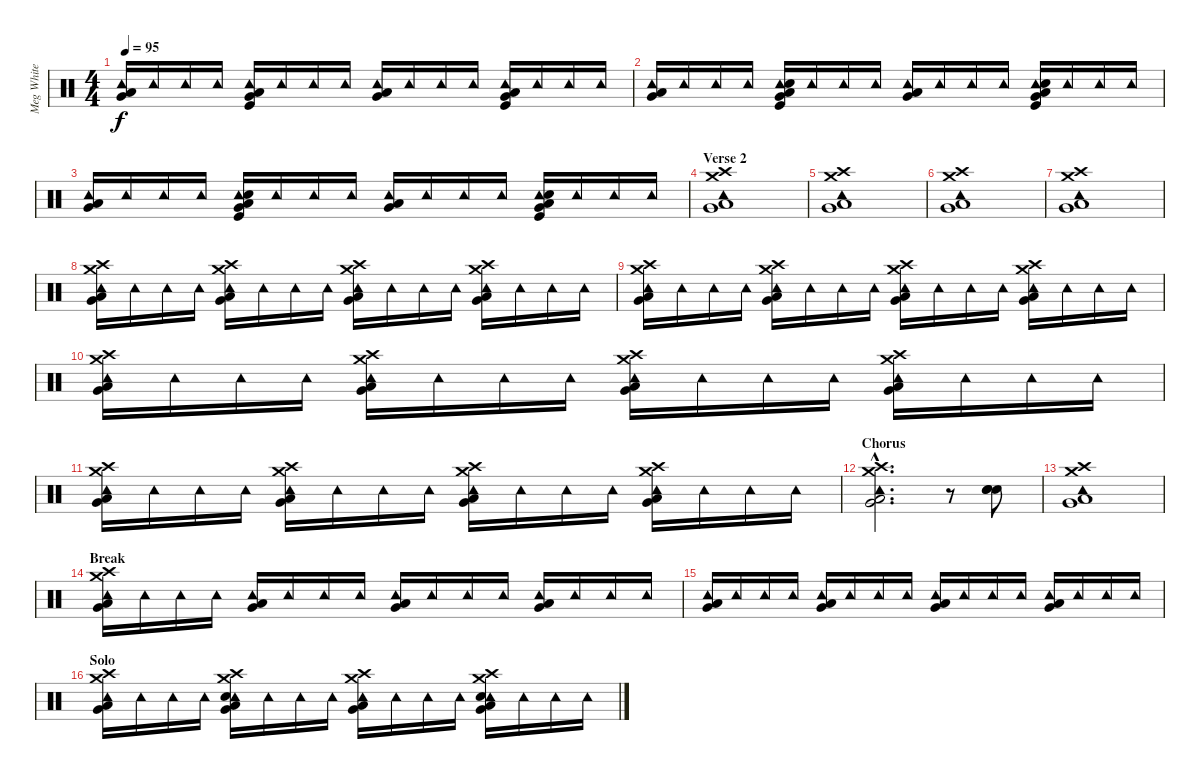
\track ("Meg White" "Meg White") {instrument percussion}
\staff {score}
\articulation defaults
\ts (4 4)
\tempo 95
\clef neutral
\ks c
("Very Low Tom (hit)" "Low Floor Tom (hit)" "Tambourine (hit)").16{dy f} "Tambourine (hit)".16 "Tambourine (hit)".16 "Tambourine (hit)".16 ("Very Low Tom (hit)" "Low Floor Tom (hit)" "Tambourine (hit)" "Kick (hit)").16 "Tambourine (hit)".16 "Tambourine (hit)".16 "Tambourine (hit)".16 ("Very Low Tom (hit)" "Low Floor Tom (hit)" "Tambourine (hit)").16 "Tambourine (hit)".16 "Tambourine (hit)".16 "Tambourine (hit)".16 ("Very Low Tom (hit)" "Low Floor Tom (hit)" "Tambourine (hit)" "Kick (hit)").16 "Tambourine (hit)".16 "Tambourine (hit)".16 "Tambourine (hit)".16 |
("Very Low Tom (hit)" "Low Floor Tom (hit)" "Tambourine (hit)").16 "Tambourine (hit)".16 "Tambourine (hit)".16 "Tambourine (hit)".16 ("Very Low Tom (hit)" "Low Floor Tom (hit)" "Tambourine (hit)" "Kick (hit)" "Electric Snare (hit)").16 "Tambourine (hit)".16 "Tambourine (hit)".16 "Tambourine (hit)".16 ("Very Low Tom (hit)" "Low Floor Tom (hit)" "Tambourine (hit)").16 "Tambourine (hit)".16 "Tambourine (hit)".16 "Tambourine (hit)".16 ("Very Low Tom (hit)" "Low Floor Tom (hit)" "Tambourine (hit)" "Kick (hit)" "Electric Snare (hit)").16 "Tambourine (hit)".16 "Tambourine (hit)".16 "Tambourine (hit)".16 |
("Very Low Tom (hit)" "Low Floor Tom (hit)" "Tambourine (hit)").16 "Tambourine (hit)".16 "Tambourine (hit)".16 "Tambourine (hit)".16 ("Very Low Tom (hit)" "Low Floor Tom (hit)" "Tambourine (hit)" "Kick (hit)" "Electric Snare (hit)").16 "Tambourine (hit)".16 "Tambourine (hit)".16 "Tambourine (hit)".16 ("Very Low Tom (hit)" "Low Floor Tom (hit)" "Tambourine (hit)").16 "Tambourine (hit)".16 "Tambourine (hit)".16 "Tambourine (hit)".16 ("Very Low Tom (hit)" "Low Floor Tom (hit)" "Tambourine (hit)" "Kick (hit)" "Electric Snare (hit)").16 "Tambourine (hit)".16 "Tambourine (hit)".16 "Tambourine (hit)".16 |
\section ("" "Verse 2")
("Very Low Tom (hit)" "Low Floor Tom (hit)" "Tambourine (hit)" "Crash high (hit)" "Crash medium (hit)").1 |
("Very Low Tom (hit)" "Low Floor Tom (hit)" "Tambourine (hit)" "Crash high (hit)" "Crash medium (hit)").1 |
("Very Low Tom (hit)" "Low Floor Tom (hit)" "Tambourine (hit)" "Crash high (hit)" "Crash medium (hit)").1 |
("Very Low Tom (hit)" "Low Floor Tom (hit)" "Tambourine (hit)" "Crash high (hit)" "Crash medium (hit)").1 |
("Very Low Tom (hit)" "Low Floor Tom (hit)" "Tambourine (hit)" "Crash high (hit)" "Crash medium (hit)").16 "Tambourine (hit)".16 "Tambourine (hit)".16 "Tambourine (hit)".16 ("Very Low Tom (hit)" "Low Floor Tom (hit)" "Tambourine (hit)" "Crash high (hit)" "Crash medium (hit)").16 "Tambourine (hit)".16 "Tambourine (hit)".16 "Tambourine (hit)".16 ("Very Low Tom (hit)" "Low Floor Tom (hit)" "Tambourine (hit)" "Crash high (hit)" "Crash medium (hit)").16 "Tambourine (hit)".16 "Tambourine (hit)".16 "Tambourine (hit)".16 ("Very Low Tom (hit)" "Low Floor Tom (hit)" "Tambourine (hit)" "Crash high (hit)" "Crash medium (hit)").16 "Tambourine (hit)".16 "Tambourine (hit)".16 "Tambourine (hit)".16 |
("Very Low Tom (hit)" "Low Floor Tom (hit)" "Tambourine (hit)" "Crash high (hit)" "Crash medium (hit)").16 "Tambourine (hit)".16 "Tambourine (hit)".16 "Tambourine (hit)".16 ("Very Low Tom (hit)" "Low Floor Tom (hit)" "Tambourine (hit)" "Crash high (hit)" "Crash medium (hit)").16 "Tambourine (hit)".16 "Tambourine (hit)".16 "Tambourine (hit)".16 ("Very Low Tom (hit)" "Low Floor Tom (hit)" "Tambourine (hit)" "Crash high (hit)" "Crash medium (hit)").16 "Tambourine (hit)".16 "Tambourine (hit)".16 "Tambourine (hit)".16 ("Very Low Tom (hit)" "Low Floor Tom (hit)" "Tambourine (hit)" "Crash high (hit)" "Crash medium (hit)").16 "Tambourine (hit)".16 "Tambourine (hit)".16 "Tambourine (hit)".16 |
("Very Low Tom (hit)" "Low Floor Tom (hit)" "Tambourine (hit)" "Crash high (hit)" "Crash medium (hit)").16 "Tambourine (hit)".16 "Tambourine (hit)".16 "Tambourine (hit)".16 ("Very Low Tom (hit)" "Low Floor Tom (hit)" "Tambourine (hit)" "Crash high (hit)" "Crash medium (hit)").16 "Tambourine (hit)".16 "Tambourine (hit)".16 "Tambourine (hit)".16 ("Very Low Tom (hit)" "Low Floor Tom (hit)" "Tambourine (hit)" "Crash high (hit)" "Crash medium (hit)").16 "Tambourine (hit)".16 "Tambourine (hit)".16 "Tambourine (hit)".16 ("Very Low Tom (hit)" "Low Floor Tom (hit)" "Tambourine (hit)" "Crash high (hit)" "Crash medium (hit)").16 "Tambourine (hit)".16 "Tambourine (hit)".16 "Tambourine (hit)".16 |
("Very Low Tom (hit)" "Low Floor Tom (hit)" "Tambourine (hit)" "Crash high (hit)" "Crash medium (hit)").16 "Tambourine (hit)".16 "Tambourine (hit)".16 "Tambourine (hit)".16 ("Very Low Tom (hit)" "Low Floor Tom (hit)" "Tambourine (hit)" "Crash high (hit)" "Crash medium (hit)").16 "Tambourine (hit)".16 "Tambourine (hit)".16 "Tambourine (hit)".16 ("Very Low Tom (hit)" "Low Floor Tom (hit)" "Tambourine (hit)" "Crash high (hit)" "Crash medium (hit)").16 "Tambourine (hit)".16 "Tambourine (hit)".16 "Tambourine (hit)".16 ("Very Low Tom (hit)" "Low Floor Tom (hit)" "Tambourine (hit)" "Crash high (hit)" "Crash medium (hit)").16 "Tambourine (hit)".16 "Tambourine (hit)".16 "Tambourine (hit)".16 |
\section ("" "Chorus")
("Very Low Tom (hit)"{hac} "Low Floor Tom (hit)"{hac} "Tambourine (hit)"{hac} "Crash high (hit)"{hac} "Crash medium (hit)"{hac}).2{d} r.8 ("Metronome (bell)" "Metronome (bell)" "Metronome (bell)").8 |
("Very Low Tom (hit)" "Low Floor Tom (hit)" "Tambourine (hit)" "Crash high (hit)" "Crash medium (hit)").1 |
\section ("" "Break")
("Very Low Tom (hit)" "Low Floor Tom (hit)" "Tambourine (hit)" "Crash high (hit)" "Crash medium (hit)").16 "Tambourine (hit)".16 "Tambourine (hit)".16 "Tambourine (hit)".16 ("Very Low Tom (hit)" "Low Floor Tom (hit)" "Tambourine (hit)").16 "Tambourine (hit)".16 "Tambourine (hit)".16 "Tambourine (hit)".16 ("Very Low Tom (hit)" "Low Floor Tom (hit)" "Tambourine (hit)").16 "Tambourine (hit)".16 "Tambourine (hit)".16 "Tambourine (hit)".16 ("Very Low Tom (hit)" "Low Floor Tom (hit)" "Tambourine (hit)").16 "Tambourine (hit)".16 "Tambourine (hit)".16 "Tambourine (hit)".16 |
("Very Low Tom (hit)" "Low Floor Tom (hit)" "Tambourine (hit)").16 "Tambourine (hit)".16 "Tambourine (hit)".16 "Tambourine (hit)".16 ("Very Low Tom (hit)" "Low Floor Tom (hit)" "Tambourine (hit)").16 "Tambourine (hit)".16 "Tambourine (hit)".16 "Tambourine (hit)".16 ("Very Low Tom (hit)" "Low Floor Tom (hit)" "Tambourine (hit)").16 "Tambourine (hit)".16 "Tambourine (hit)".16 "Tambourine (hit)".16 ("Very Low Tom (hit)" "Low Floor Tom (hit)" "Tambourine (hit)").16 "Tambourine (hit)".16 "Tambourine (hit)".16 "Tambourine (hit)".16 |
\section ("" "Solo")
("Very Low Tom (hit)" "Low Floor Tom (hit)" "Tambourine (hit)" "Crash high (hit)" "Crash medium (hit)").16 "Tambourine (hit)".16 "Tambourine (hit)".16 "Tambourine (hit)".16 ("Very Low Tom (hit)" "Low Floor Tom (hit)" "Tambourine (hit)" "Electric Snare (hit)" "Crash high (hit)" "Crash medium (hit)").16 "Tambourine (hit)".16 "Tambourine (hit)".16 "Tambourine (hit)".16 ("Very Low Tom (hit)" "Low Floor Tom (hit)" "Tambourine (hit)" "Crash high (hit)" "Crash medium (hit)").16 "Tambourine (hit)".16 "Tambourine (hit)".16 "Tambourine (hit)".16 ("Very Low Tom (hit)" "Low Floor Tom (hit)" "Tambourine (hit)" "Electric Snare (hit)" "Crash high (hit)" "Crash medium (hit)").16 "Tambourine (hit)".16 "Tambourine (hit)".16 "Tambourine (hit)".16
